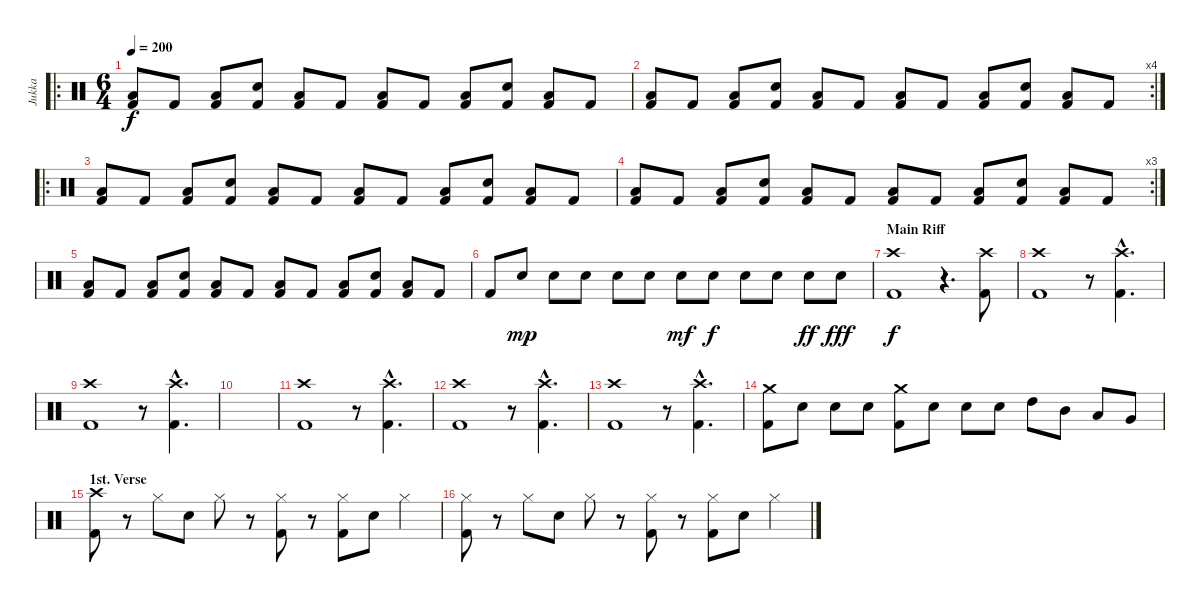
\track ("Jukka" "Jukka") {instrument percussion}
\staff {score}
\articulation defaults
\ro
\ts (6 4)
\tempo 200
\clef neutral
\ks c
("Low Floor Tom (hit)" "Kick (hit) 2").8{dy f} "Kick (hit) 2".8 ("Low Floor Tom (hit)" "Kick (hit) 2").8 ("Snare (hit) 2" "Kick (hit) 2").8 ("Low Floor Tom (hit)" "Kick (hit) 2").8 "Kick (hit) 2".8 ("Low Floor Tom (hit)" "Kick (hit) 2").8 "Kick (hit) 2".8 ("Low Floor Tom (hit)" "Kick (hit) 2").8 ("Snare (hit) 2" "Kick (hit) 2").8 ("Low Floor Tom (hit)" "Kick (hit) 2").8 "Kick (hit) 2".8 |
\rc 4
("Low Floor Tom (hit)" "Kick (hit) 2").8 "Kick (hit) 2".8 ("Low Floor Tom (hit)" "Kick (hit) 2").8 ("Snare (hit) 2" "Kick (hit) 2").8 ("Low Floor Tom (hit)" "Kick (hit) 2").8 "Kick (hit) 2".8 ("Low Floor Tom (hit)" "Kick (hit) 2").8 "Kick (hit) 2".8 ("Low Floor Tom (hit)" "Kick (hit) 2").8 ("Snare (hit) 2" "Kick (hit) 2").8 ("Low Floor Tom (hit)" "Kick (hit) 2").8 "Kick (hit) 2".8 |
\ro
("Low Floor Tom (hit)" "Kick (hit) 2").8 "Kick (hit) 2".8 ("Low Floor Tom (hit)" "Kick (hit) 2").8 ("Snare (hit) 2" "Kick (hit) 2").8 ("Low Floor Tom (hit)" "Kick (hit) 2").8 "Kick (hit) 2".8 ("Low Floor Tom (hit)" "Kick (hit) 2").8 "Kick (hit) 2".8 ("Low Floor Tom (hit)" "Kick (hit) 2").8 ("Snare (hit) 2" "Kick (hit) 2").8 ("Low Floor Tom (hit)" "Kick (hit) 2").8 "Kick (hit) 2".8 |
\rc 3
("Low Floor Tom (hit)" "Kick (hit) 2").8 "Kick (hit) 2".8 ("Low Floor Tom (hit)" "Kick (hit) 2").8 ("Snare (hit) 2" "Kick (hit) 2").8 ("Low Floor Tom (hit)" "Kick (hit) 2").8 "Kick (hit) 2".8 ("Low Floor Tom (hit)" "Kick (hit) 2").8 "Kick (hit) 2".8 ("Low Floor Tom (hit)" "Kick (hit) 2").8 ("Snare (hit) 2" "Kick (hit) 2").8 ("Low Floor Tom (hit)" "Kick (hit) 2").8 "Kick (hit) 2".8 |
("Low Floor Tom (hit)" "Kick (hit) 2").8 "Kick (hit) 2".8 ("Low Floor Tom (hit)" "Kick (hit) 2").8 ("Snare (hit) 2" "Kick (hit) 2").8 ("Low Floor Tom (hit)" "Kick (hit) 2").8 "Kick (hit) 2".8 ("Low Floor Tom (hit)" "Kick (hit) 2").8 "Kick (hit) 2".8 ("Low Floor Tom (hit)" "Kick (hit) 2").8 ("Snare (hit) 2" "Kick (hit) 2").8 ("Low Floor Tom (hit)" "Kick (hit) 2").8 "Kick (hit) 2".8 |
"Kick (hit) 2".8 "Snare (hit) 2".8{dy mp} "Snare (hit) 2".8 "Snare (hit) 2".8 "Snare (hit) 2".8 "Snare (hit) 2".8 "Snare (hit) 2".8{dy mf} "Snare (hit) 2".8{dy f} "Snare (hit) 2".8 "Snare (hit) 2".8 "Snare (hit) 2".8{dy ff} "Snare (hit) 2".8{dy fff} |
\section ("" "Main Riff")
("Crash high (hit)" "Kick (hit) 2").1{dy f} r.4{d} ("Crash high (hit)" "Kick (hit) 2").8 |
("Crash high (hit)" "Kick (hit) 2").1 r.8 ("Crash high (hit)"{hac} "Kick (hit) 2"{hac}).4{d} |
("Crash high (hit)" "Kick (hit) 2").1 r.8 ("Crash high (hit)"{hac} "Kick (hit) 2"{hac}).4{d} |
|
("Crash high (hit)" "Kick (hit) 2").1 r.8 ("Crash high (hit)"{hac} "Kick (hit) 2"{hac}).4{d} |
("Crash high (hit)" "Kick (hit) 2").1 r.8 ("Crash high (hit)"{hac} "Kick (hit) 2"{hac}).4{d} |
("Crash high (hit)" "Kick (hit) 2").1 r.8 ("Crash high (hit)"{hac} "Kick (hit) 2"{hac}).4{d} |
("Crash medium (hit)" "Kick (hit) 2").8 "Snare (hit) 2".8 "Snare (hit) 2".8 "Snare (hit) 2".8 ("Crash medium (hit)" "Kick (hit) 2").8 "Snare (hit) 2".8 "Snare (hit) 2".8 "Snare (hit) 2".8 "High Tom (hit)".8 "Mid Tom (hit)".8 "Low Tom (hit)".8 "Very Low Tom (hit)".8 |
\section ("" "1st. Verse")
("Crash high (hit)" "Kick (hit) 2").8 r.8 "Hi-Hat (closed)".8 "Snare (hit) 2".8 "Hi-Hat (closed)".8 r.8 ("Hi-Hat (closed)" "Kick (hit) 2").8 r.8 ("Hi-Hat (closed)" "Kick (hit) 2").8 "Snare (hit) 2".8 "Hi-Hat (closed)".4 |
("Hi-Hat (closed)" "Kick (hit) 2").8 r.8 "Hi-Hat (closed)".8 "Snare (hit) 2".8 "Hi-Hat (closed)".8 r.8 ("Hi-Hat (closed)" "Kick (hit) 2").8 r.8 ("Hi-Hat (closed)" "Kick (hit) 2").8 "Snare (hit) 2".8 "Hi-Hat (closed)".4
